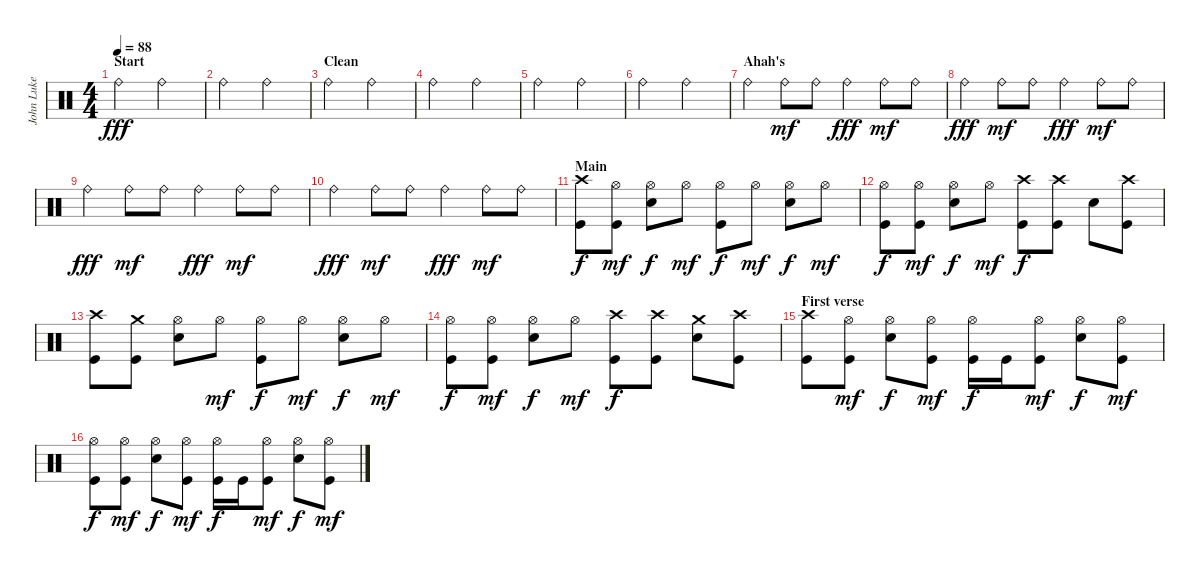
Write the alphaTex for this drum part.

\track ("John Luke (Drums)" "John Luke ") {instrument percussion}
\staff {score}
\articulation defaults
\ts (4 4)
\section ("" "Start")
\tempo 88
\clef neutral
\ks c "Ride (bell)".2{dy fff} "Ride (bell)".2
|
"Ride (bell)".2 "Ride (bell)".2 |
\section ("" "Clean")
"Ride (bell)".2 "Ride (bell)".2 |
"Ride (bell)".2 "Ride (bell)".2 |
"Ride (bell)".2 "Ride (bell)".2 |
"Ride (bell)".2 "Ride (bell)".2 |
\section ("" "Ahah's")
"Ride (bell)".4 "Ride (bell)".8{dy mf} "Ride (bell)".8 "Ride (bell)".4{dy fff} "Ride (bell)".8{dy mf} "Ride (bell)".8 |
"Ride (bell)".4{dy fff} "Ride (bell)".8{dy mf} "Ride (bell)".8 "Ride (bell)".4{dy fff} "Ride (bell)".8{dy mf} "Ride (bell)".8 |
"Ride (bell)".4{dy fff} "Ride (bell)".8{dy mf} "Ride (bell)".8 "Ride (bell)".4{dy fff} "Ride (bell)".8{dy mf} "Ride (bell)".8 |
"Ride (bell)".4{dy fff} "Ride (bell)".8{dy mf} "Ride (bell)".8 "Ride (bell)".4{dy fff} "Ride (bell)".8{dy mf} "Ride (bell)".8 |
\section ("" "Main")
("Crash high (hit)" "Kick (hit)").8{dy f} ("Hi-Hat (open)" "Kick (hit)").8{dy mf} ("Hi-Hat (open)" "Electric Snare (hit)").8{dy f} "Hi-Hat (open)".8{dy mf} ("Hi-Hat (open)" "Kick (hit)").8{dy f} "Hi-Hat (open)".8{dy mf} ("Hi-Hat (open)" "Electric Snare (hit)").8{dy f} "Hi-Hat (open)".8{dy mf} |
("Hi-Hat (open)" "Kick (hit)").8{dy f} ("Hi-Hat (open)" "Kick (hit)").8{dy mf} ("Hi-Hat (open)" "Electric Snare (hit)").8{dy f} "Hi-Hat (open)".8{dy mf} ("Crash high (hit)" "Kick (hit)").8{dy f} ("Crash high (hit)" "Kick (hit)").8 "Electric Snare (hit)".8 ("Crash high (hit)" "Kick (hit)").8 |
("Crash high (hit)" "Kick (hit)").8 ("Crash medium (hit)" "Kick (hit)").8 ("Hi-Hat (open)" "Electric Snare (hit)").8 "Hi-Hat (open)".8{dy mf} ("Hi-Hat (open)" "Kick (hit)").8{dy f} "Hi-Hat (open)".8{dy mf} ("Hi-Hat (open)" "Electric Snare (hit)").8{dy f} "Hi-Hat (open)".8{dy mf} |
("Hi-Hat (open)" "Kick (hit)").8{dy f} ("Hi-Hat (open)" "Kick (hit)").8{dy mf} ("Hi-Hat (open)" "Electric Snare (hit)").8{dy f} "Hi-Hat (open)".8{dy mf} ("Crash high (hit)" "Kick (hit)").8{dy f} ("Crash high (hit)" "Kick (hit)").8 ("Crash medium (hit)" "Electric Snare (hit)").8 ("Crash high (hit)" "Kick (hit)").8 |
\section ("" "First verse")
("Crash high (hit)" "Kick (hit)").8 ("Hi-Hat (open)" "Kick (hit)").8{dy mf} ("Hi-Hat (open)" "Electric Snare (hit)").8{dy f} ("Hi-Hat (open)" "Kick (hit)").8{dy mf} ("Hi-Hat (open)" "Kick (hit)").16{dy f} "Kick (hit)".16 ("Hi-Hat (open)" "Kick (hit)").8{dy mf} ("Hi-Hat (open)" "Electric Snare (hit)").8{dy f} ("Hi-Hat (open)" "Kick (hit)").8{dy mf} |
("Hi-Hat (open)" "Kick (hit)").8{dy f} ("Hi-Hat (open)" "Kick (hit)").8{dy mf} ("Hi-Hat (open)" "Electric Snare (hit)").8{dy f} ("Hi-Hat (open)" "Kick (hit)").8{dy mf} ("Hi-Hat (open)" "Kick (hit)").16{dy f} "Kick (hit)".16 ("Hi-Hat (open)" "Kick (hit)").8{dy mf} ("Hi-Hat (open)" "Electric Snare (hit)").8{dy f} ("Hi-Hat (open)" "Kick (hit)").8{dy mf}
